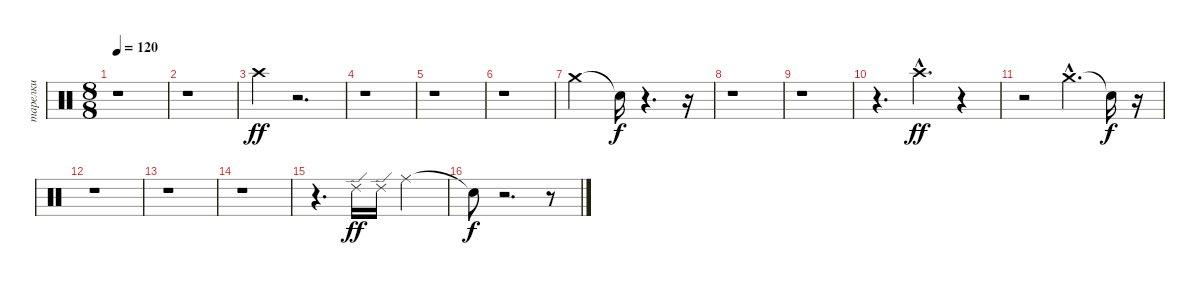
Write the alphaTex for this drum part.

\track ("тарелки" "тарелки") {instrument percussion}
\staff {score}
\articulation defaults
\ts (8 8)
\tempo 120
\clef neutral
\ks c
r.1{dy ff} |
r.1 |
"Crash high (hit)".4 r.2{d} |
r.1 |
r.1 |
r.1 |
"Crash medium (hit)".2 "Snare (hit)"{t}.16{dy f} r.4{d} r.16 |
r.1 |
r.1 |
r.4{d} "Crash high (hit)"{hac}.4{d dy ff} r.4 |
r.2 "Crash medium (hit)"{hac}.4{d} "Snare (hit)"{t}.16{dy f} r.16 |
r.1 |
r.1 |
r.1 |
r.4{d} "Ride (edge) 2".16{dy ff} "Ride (edge) 2".16 "Ride (middle)".2 |
"Snare (hit)"{t}.8{dy f} r.2{d} r.8
